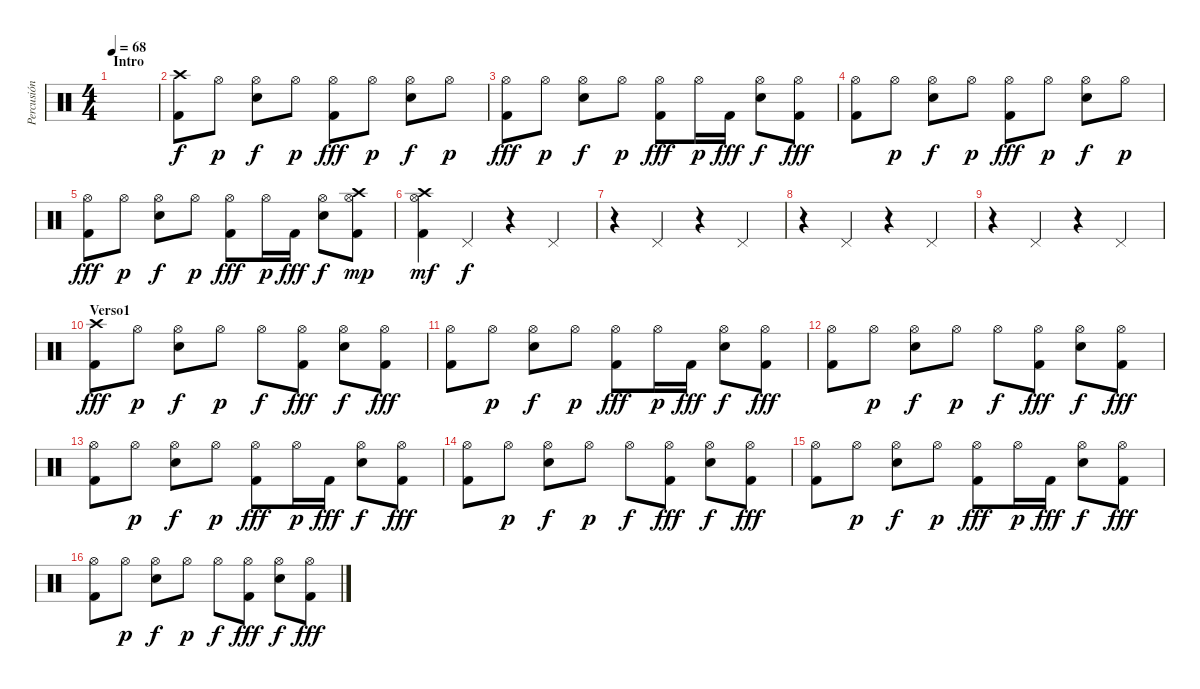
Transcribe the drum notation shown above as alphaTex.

\track ("Percusión" "Percusión") {instrument percussion}
\staff {score}
\articulation defaults
\ts (4 4)
\section ("" "Intro")
\tempo 68
\clef neutral
\ks c
|
("Kick (hit) 2" "Crash high (hit)").8 "Hi-Hat (open)".8{dy p} ("Hi-Hat (open)" "Snare (hit) 2").8{dy f} "Hi-Hat (open)".8{dy p} ("Hi-Hat (open)" "Kick (hit) 2").8{dy fff} "Hi-Hat (open)".8{dy p} ("Hi-Hat (open)" "Snare (hit) 2").8{dy f} "Hi-Hat (open)".8{dy p} |
("Hi-Hat (open)" "Kick (hit) 2").8{dy fff} "Hi-Hat (open)".8{dy p} ("Hi-Hat (open)" "Snare (hit) 2").8{dy f} "Hi-Hat (open)".8{dy p} ("Hi-Hat (open)" "Kick (hit) 2").8{dy fff} "Hi-Hat (open)".16{dy p} "Kick (hit) 2".16{dy fff} ("Hi-Hat (open)" "Snare (hit) 2").8{dy f} ("Hi-Hat (open)" "Kick (hit) 2").8{dy fff} |
("Hi-Hat (open)" "Kick (hit) 2").8 "Hi-Hat (open)".8{dy p} ("Hi-Hat (open)" "Snare (hit) 2").8{dy f} "Hi-Hat (open)".8{dy p} ("Hi-Hat (open)" "Kick (hit) 2").8{dy fff} "Hi-Hat (open)".8{dy p} ("Hi-Hat (open)" "Snare (hit) 2").8{dy f} "Hi-Hat (open)".8{dy p} |
("Hi-Hat (open)" "Kick (hit) 2").8{dy fff} "Hi-Hat (open)".8{dy p} ("Hi-Hat (open)" "Snare (hit) 2").8{dy f} "Hi-Hat (open)".8{dy p} ("Hi-Hat (open)" "Kick (hit) 2").8{dy fff} "Hi-Hat (open)".16{dy p} "Kick (hit) 2".16{dy fff} ("Hi-Hat (open)" "Snare (hit) 2").8{dy f} ("Hi-Hat (open)" "Kick (hit) 2" "Crash high (hit)").8{dy mp} |
("Hi-Hat (open)" "Kick (hit) 2" "Crash high (hit)").4{dy mf} "Pedal Hi-Hat (hit)".4{dy f} r.4 "Pedal Hi-Hat (hit)".4 |
r.4 "Pedal Hi-Hat (hit)".4 r.4 "Pedal Hi-Hat (hit)".4 |
r.4 "Pedal Hi-Hat (hit)".4 r.4 "Pedal Hi-Hat (hit)".4 |
r.4 "Pedal Hi-Hat (hit)".4 r.4 "Pedal Hi-Hat (hit)".4 |
\section ("" "Verso1")
("Kick (hit) 2" "Crash high (hit)").8{dy fff} "Hi-Hat (open)".8{dy p} ("Hi-Hat (open)" "Snare (hit) 2").8{dy f} "Hi-Hat (open)".8{dy p} "Hi-Hat (open)".8{dy f} ("Hi-Hat (open)" "Kick (hit) 2").8{dy fff} ("Hi-Hat (open)" "Snare (hit) 2").8{dy f} ("Hi-Hat (open)" "Kick (hit) 2").8{dy fff} |
("Hi-Hat (open)" "Kick (hit) 2").8 "Hi-Hat (open)".8{dy p} ("Hi-Hat (open)" "Snare (hit) 2").8{dy f} "Hi-Hat (open)".8{dy p} ("Hi-Hat (open)" "Kick (hit) 2").8{dy fff} "Hi-Hat (open)".16{dy p} "Kick (hit) 2".16{dy fff} ("Hi-Hat (open)" "Snare (hit) 2").8{dy f} ("Hi-Hat (open)" "Kick (hit) 2").8{dy fff} |
("Hi-Hat (open)" "Kick (hit) 2").8 "Hi-Hat (open)".8{dy p} ("Hi-Hat (open)" "Snare (hit) 2").8{dy f} "Hi-Hat (open)".8{dy p} "Hi-Hat (open)".8{dy f} ("Hi-Hat (open)" "Kick (hit) 2").8{dy fff} ("Hi-Hat (open)" "Snare (hit) 2").8{dy f} ("Hi-Hat (open)" "Kick (hit) 2").8{dy fff} |
("Hi-Hat (open)" "Kick (hit) 2").8 "Hi-Hat (open)".8{dy p} ("Hi-Hat (open)" "Snare (hit) 2").8{dy f} "Hi-Hat (open)".8{dy p} ("Hi-Hat (open)" "Kick (hit) 2").8{dy fff} "Hi-Hat (open)".16{dy p} "Kick (hit) 2".16{dy fff} ("Hi-Hat (open)" "Snare (hit) 2").8{dy f} ("Hi-Hat (open)" "Kick (hit) 2").8{dy fff} |
("Hi-Hat (open)" "Kick (hit) 2").8 "Hi-Hat (open)".8{dy p} ("Hi-Hat (open)" "Snare (hit) 2").8{dy f} "Hi-Hat (open)".8{dy p} "Hi-Hat (open)".8{dy f} ("Hi-Hat (open)" "Kick (hit) 2").8{dy fff} ("Hi-Hat (open)" "Snare (hit) 2").8{dy f} ("Hi-Hat (open)" "Kick (hit) 2").8{dy fff} |
("Hi-Hat (open)" "Kick (hit) 2").8 "Hi-Hat (open)".8{dy p} ("Hi-Hat (open)" "Snare (hit) 2").8{dy f} "Hi-Hat (open)".8{dy p} ("Hi-Hat (open)" "Kick (hit) 2").8{dy fff} "Hi-Hat (open)".16{dy p} "Kick (hit) 2".16{dy fff} ("Hi-Hat (open)" "Snare (hit) 2").8{dy f} ("Hi-Hat (open)" "Kick (hit) 2").8{dy fff} |
("Hi-Hat (open)" "Kick (hit) 2").8 "Hi-Hat (open)".8{dy p} ("Hi-Hat (open)" "Snare (hit) 2").8{dy f} "Hi-Hat (open)".8{dy p} "Hi-Hat (open)".8{dy f} ("Hi-Hat (open)" "Kick (hit) 2").8{dy fff} ("Hi-Hat (open)" "Snare (hit) 2").8{dy f} ("Hi-Hat (open)" "Kick (hit) 2").8{dy fff}
